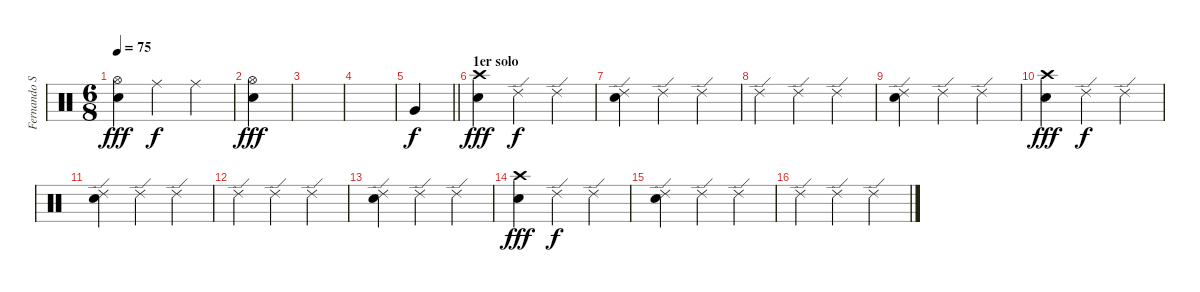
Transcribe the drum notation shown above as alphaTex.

\track ("Fernando Scarcella " "Fernando S") {instrument percussion}
\staff {score}
\articulation defaults
\ts (6 8)
\tempo 75
\clef neutral
\ks c
("Hi-Hat (open)" "Snare (hit) 2").4{dy fff} "Ride (middle)".4{dy f} "Ride (middle)".4 |
("Hi-Hat (open)" "Snare (hit) 2").4{dy fff} |
|
|
\barLineRight lightlight "Very Low Tom (hit)".4{dy f}
|
\section ("" "1er solo")
("Snare (hit) 2" "Crash high (hit)").4{dy fff} "Ride (edge) 2".4{dy f} "Ride (edge) 2".4 |
("Electric Snare (hit)" "Ride (edge) 2").4 "Ride (edge) 2".4 "Ride (edge) 2".4 |
"Ride (edge) 2".4 "Ride (edge) 2".4 "Ride (edge) 2".4 |
("Electric Snare (hit)" "Ride (edge) 2").4 "Ride (edge) 2".4 "Ride (edge) 2".4 |
("Snare (hit) 2" "Crash high (hit)").4{dy fff} "Ride (edge) 2".4{dy f} "Ride (edge) 2".4 |
("Electric Snare (hit)" "Ride (edge) 2").4 "Ride (edge) 2".4 "Ride (edge) 2".4 |
"Ride (edge) 2".4 "Ride (edge) 2".4 "Ride (edge) 2".4 |
("Electric Snare (hit)" "Ride (edge) 2").4 "Ride (edge) 2".4 "Ride (edge) 2".4 |
("Snare (hit) 2" "Crash high (hit)").4{dy fff} "Ride (edge) 2".4{dy f} "Ride (edge) 2".4 |
("Electric Snare (hit)" "Ride (edge) 2").4 "Ride (edge) 2".4 "Ride (edge) 2".4 |
"Ride (edge) 2".4 "Ride (edge) 2".4 "Ride (edge) 2".4
